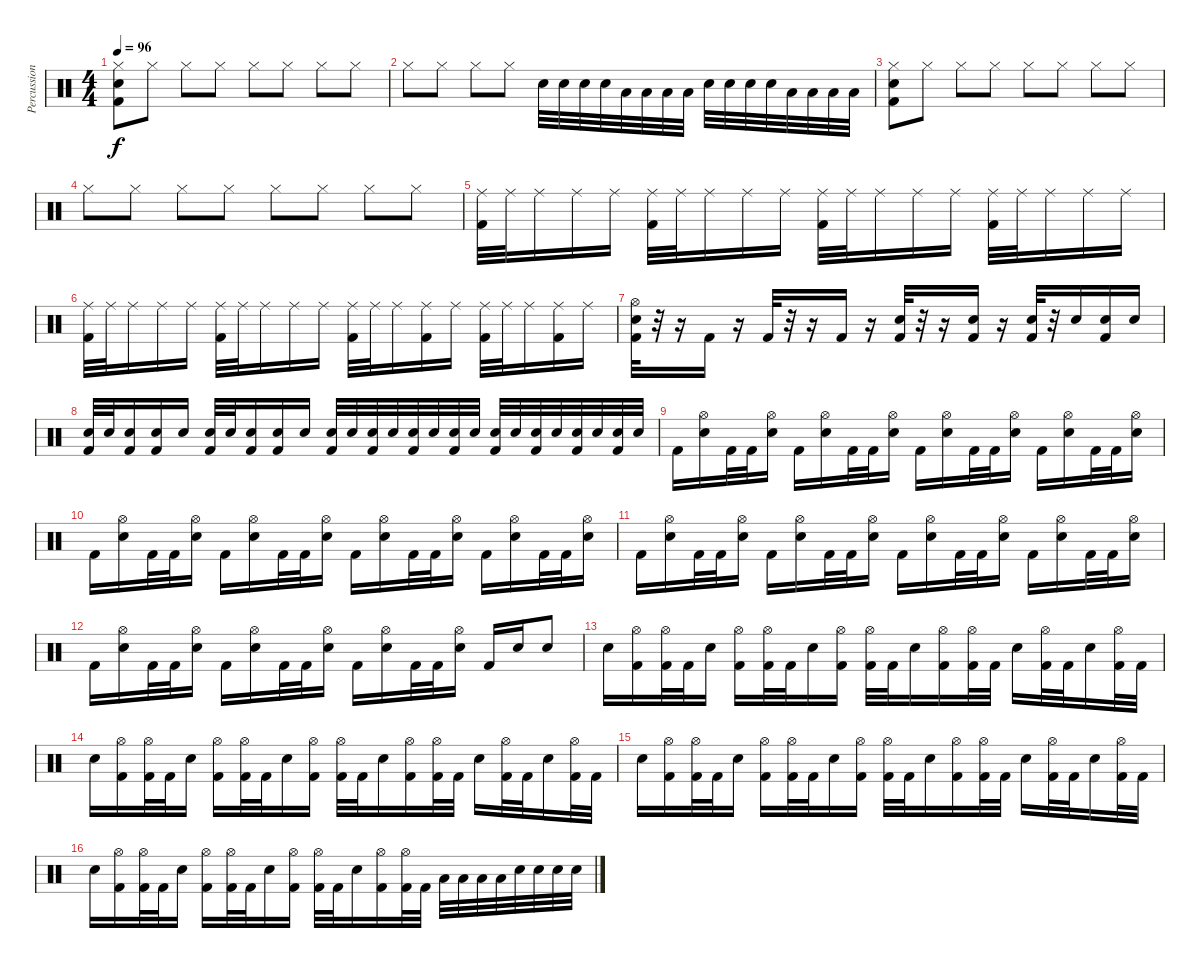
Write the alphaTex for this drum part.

\track ("Percussion" "Percussion") {instrument percussion}
\staff {score}
\articulation defaults
\ts (4 4)
\tempo 96
\clef neutral
\ks c
("Kick (hit) 2" "Hi-Hat (closed)" "Electric Snare (hit)").8{dy f} "Hi-Hat (closed)".8 "Hi-Hat (closed)".8 "Hi-Hat (closed)".8 "Hi-Hat (closed)".8 "Hi-Hat (closed)".8 "Hi-Hat (closed)".8 "Hi-Hat (closed)".8 |
"Hi-Hat (closed)".8 "Hi-Hat (closed)".8 "Hi-Hat (closed)".8 "Hi-Hat (closed)".8 "Electric Snare (hit)".32 "Electric Snare (hit)".32 "Electric Snare (hit)".32 "Electric Snare (hit)".32 "Low Tom (hit)".32 "Low Tom (hit)".32 "Low Tom (hit)".32 "Low Tom (hit)".32 "Electric Snare (hit)".32 "Electric Snare (hit)".32 "Electric Snare (hit)".32 "Electric Snare (hit)".32 "Low Tom (hit)".32 "Low Tom (hit)".32 "Low Tom (hit)".32 "Low Tom (hit)".32 |
("Kick (hit) 2" "Hi-Hat (closed)" "Electric Snare (hit)").8 "Hi-Hat (closed)".8 "Hi-Hat (closed)".8 "Hi-Hat (closed)".8 "Hi-Hat (closed)".8 "Hi-Hat (closed)".8 "Hi-Hat (closed)".8 "Hi-Hat (closed)".8 |
"Hi-Hat (closed)".8 "Hi-Hat (closed)".8 "Hi-Hat (closed)".8 "Hi-Hat (closed)".8 "Hi-Hat (closed)".8 "Hi-Hat (closed)".8 "Hi-Hat (closed)".8 "Hi-Hat (closed)".8 |
("Kick (hit) 2" "Ride (middle)").32 "Ride (middle)".32 "Ride (middle)".16 "Ride (middle)".16 "Ride (middle)".16 ("Kick (hit) 2" "Ride (middle)").32 "Ride (middle)".32 "Ride (middle)".16 "Ride (middle)".16 "Ride (middle)".16 ("Kick (hit) 2" "Ride (middle)").32 "Ride (middle)".32 "Ride (middle)".16 "Ride (middle)".16 "Ride (middle)".16 ("Kick (hit) 2" "Ride (middle)").32 "Ride (middle)".32 "Ride (middle)".16 "Ride (middle)".16 "Ride (middle)".16 |
("Kick (hit) 2" "Ride (middle)").32 "Ride (middle)".32 "Ride (middle)".16 "Ride (middle)".16 "Ride (middle)".16 ("Kick (hit) 2" "Ride (middle)").32 "Ride (middle)".32 "Ride (middle)".16 "Ride (middle)".16 "Ride (middle)".16 ("Kick (hit) 2" "Ride (middle)").32 "Ride (middle)".32 "Ride (middle)".16 ("Kick (hit) 2" "Ride (middle)").16 "Ride (middle)".16 ("Kick (hit) 2" "Ride (middle)").32 "Ride (middle)".32 "Ride (middle)".16 ("Kick (hit) 2" "Ride (middle)").16 "Ride (middle)".16 |
("Kick (hit) 2" "Hi-Hat (open)" "Electric Snare (hit)").32 r.32 r.16 "Kick (hit) 2".16 r.16 "Kick (hit) 2".32 r.32 r.16 "Kick (hit) 2".16 r.16 ("Kick (hit) 2" "Electric Snare (hit)").32 r.32 r.16 ("Kick (hit) 2" "Electric Snare (hit)").16 r.16 ("Kick (hit) 2" "Electric Snare (hit)").32 r.32 "Electric Snare (hit)".16{volume 7} ("Kick (hit) 2" "Electric Snare (hit)").16{volume 8} "Electric Snare (hit)".16{volume 9} |
("Kick (hit) 2" "Electric Snare (hit)").32{volume 10} "Electric Snare (hit)".32 ("Kick (hit) 2" "Electric Snare (hit)").16 ("Kick (hit) 2" "Electric Snare (hit)").16{volume 13} "Electric Snare (hit)".16 ("Kick (hit) 2" "Electric Snare (hit)").32{volume 14} "Electric Snare (hit)".32 ("Kick (hit) 2" "Electric Snare (hit)").16 ("Kick (hit) 2" "Electric Snare (hit)").16{volume 15} "Electric Snare (hit)".16 ("Kick (hit) 2" "Electric Snare (hit)").32{volume 15} "Electric Snare (hit)".32 ("Kick (hit) 2" "Electric Snare (hit)").32 "Electric Snare (hit)".32 ("Kick (hit) 2" "Electric Snare (hit)").32 "Electric Snare (hit)".32 ("Kick (hit) 2" "Electric Snare (hit)").32 "Electric Snare (hit)".32 ("Kick (hit) 2" "Electric Snare (hit)").32 "Electric Snare (hit)".32 ("Kick (hit) 2" "Electric Snare (hit)").32 "Electric Snare (hit)".32 ("Kick (hit) 2" "Electric Snare (hit)").32 "Electric Snare (hit)".32 ("Kick (hit) 2" "Electric Snare (hit)").32 "Electric Snare (hit)".32 |
"Kick (hit) 2".16 ("Electric Snare (hit)" "Hi-Hat (open)").16 "Kick (hit) 2".32 "Kick (hit) 2".32 ("Electric Snare (hit)" "Hi-Hat (open)").16 "Kick (hit) 2".16 ("Electric Snare (hit)" "Hi-Hat (open)").16 "Kick (hit) 2".32 "Kick (hit) 2".32 ("Electric Snare (hit)" "Hi-Hat (open)").16 "Kick (hit) 2".16 ("Electric Snare (hit)" "Hi-Hat (open)").16 "Kick (hit) 2".32 "Kick (hit) 2".32 ("Electric Snare (hit)" "Hi-Hat (open)").16 "Kick (hit) 2".16 ("Electric Snare (hit)" "Hi-Hat (open)").16 "Kick (hit) 2".32 "Kick (hit) 2".32 ("Electric Snare (hit)" "Hi-Hat (open)").16 |
"Kick (hit) 2".16 ("Electric Snare (hit)" "Hi-Hat (open)").16 "Kick (hit) 2".32 "Kick (hit) 2".32 ("Electric Snare (hit)" "Hi-Hat (open)").16 "Kick (hit) 2".16 ("Electric Snare (hit)" "Hi-Hat (open)").16 "Kick (hit) 2".32 "Kick (hit) 2".32 ("Electric Snare (hit)" "Hi-Hat (open)").16 "Kick (hit) 2".16 ("Electric Snare (hit)" "Hi-Hat (open)").16 "Kick (hit) 2".32 "Kick (hit) 2".32 ("Electric Snare (hit)" "Hi-Hat (open)").16 "Kick (hit) 2".16 ("Electric Snare (hit)" "Hi-Hat (open)").16 "Kick (hit) 2".32 "Kick (hit) 2".32 ("Electric Snare (hit)" "Hi-Hat (open)").16 |
"Kick (hit) 2".16 ("Electric Snare (hit)" "Hi-Hat (open)").16 "Kick (hit) 2".32 "Kick (hit) 2".32 ("Electric Snare (hit)" "Hi-Hat (open)").16 "Kick (hit) 2".16 ("Electric Snare (hit)" "Hi-Hat (open)").16 "Kick (hit) 2".32 "Kick (hit) 2".32 ("Electric Snare (hit)" "Hi-Hat (open)").16 "Kick (hit) 2".16 ("Electric Snare (hit)" "Hi-Hat (open)").16 "Kick (hit) 2".32 "Kick (hit) 2".32 ("Electric Snare (hit)" "Hi-Hat (open)").16 "Kick (hit) 2".16 ("Electric Snare (hit)" "Hi-Hat (open)").16 "Kick (hit) 2".32 "Kick (hit) 2".32 ("Electric Snare (hit)" "Hi-Hat (open)").16 |
"Kick (hit) 2".16 ("Electric Snare (hit)" "Hi-Hat (open)").16 "Kick (hit) 2".32 "Kick (hit) 2".32 ("Electric Snare (hit)" "Hi-Hat (open)").16 "Kick (hit) 2".16 ("Electric Snare (hit)" "Hi-Hat (open)").16 "Kick (hit) 2".32 "Kick (hit) 2".32 ("Electric Snare (hit)" "Hi-Hat (open)").16 "Kick (hit) 2".16 ("Electric Snare (hit)" "Hi-Hat (open)").16 "Kick (hit) 2".32 "Kick (hit) 2".32 ("Electric Snare (hit)" "Hi-Hat (open)").16 "Kick (hit) 2".16 "Electric Snare (hit)".16 "Electric Snare (hit)".8 |
"Electric Snare (hit)".16 ("Kick (hit) 2" "Hi-Hat (open)").16 ("Kick (hit) 2" "Hi-Hat (open)").32 "Kick (hit) 2".32 "Electric Snare (hit)".16 ("Kick (hit) 2" "Hi-Hat (open)").16 ("Kick (hit) 2" "Hi-Hat (open)").32 "Kick (hit) 2".32 "Electric Snare (hit)".16 ("Kick (hit) 2" "Hi-Hat (open)").16 ("Kick (hit) 2" "Hi-Hat (open)").32 "Kick (hit) 2".32 "Electric Snare (hit)".16 ("Kick (hit) 2" "Hi-Hat (open)").16 ("Kick (hit) 2" "Hi-Hat (open)").32 "Kick (hit) 2".32 "Electric Snare (hit)".16 ("Kick (hit) 2" "Hi-Hat (open)").32 "Kick (hit) 2".32 "Electric Snare (hit)".16 ("Kick (hit) 2" "Hi-Hat (open)").32 "Kick (hit) 2".32 |
"Electric Snare (hit)".16 ("Kick (hit) 2" "Hi-Hat (open)").16 ("Kick (hit) 2" "Hi-Hat (open)").32 "Kick (hit) 2".32 "Electric Snare (hit)".16 ("Kick (hit) 2" "Hi-Hat (open)").16 ("Kick (hit) 2" "Hi-Hat (open)").32 "Kick (hit) 2".32 "Electric Snare (hit)".16 ("Kick (hit) 2" "Hi-Hat (open)").16 ("Kick (hit) 2" "Hi-Hat (open)").32 "Kick (hit) 2".32 "Electric Snare (hit)".16 ("Kick (hit) 2" "Hi-Hat (open)").16 ("Kick (hit) 2" "Hi-Hat (open)").32 "Kick (hit) 2".32 "Electric Snare (hit)".16 ("Kick (hit) 2" "Hi-Hat (open)").32 "Kick (hit) 2".32 "Electric Snare (hit)".16 ("Kick (hit) 2" "Hi-Hat (open)").32 "Kick (hit) 2".32 |
"Electric Snare (hit)".16 ("Kick (hit) 2" "Hi-Hat (open)").16 ("Kick (hit) 2" "Hi-Hat (open)").32 "Kick (hit) 2".32 "Electric Snare (hit)".16 ("Kick (hit) 2" "Hi-Hat (open)").16 ("Kick (hit) 2" "Hi-Hat (open)").32 "Kick (hit) 2".32 "Electric Snare (hit)".16 ("Kick (hit) 2" "Hi-Hat (open)").16 ("Kick (hit) 2" "Hi-Hat (open)").32 "Kick (hit) 2".32 "Electric Snare (hit)".16 ("Kick (hit) 2" "Hi-Hat (open)").16 ("Kick (hit) 2" "Hi-Hat (open)").32 "Kick (hit) 2".32 "Electric Snare (hit)".16 ("Kick (hit) 2" "Hi-Hat (open)").32 "Kick (hit) 2".32 "Electric Snare (hit)".16 ("Kick (hit) 2" "Hi-Hat (open)").32 "Kick (hit) 2".32 |
"Electric Snare (hit)".16 ("Kick (hit) 2" "Hi-Hat (open)").16 ("Kick (hit) 2" "Hi-Hat (open)").32 "Kick (hit) 2".32 "Electric Snare (hit)".16 ("Kick (hit) 2" "Hi-Hat (open)").16 ("Kick (hit) 2" "Hi-Hat (open)").32 "Kick (hit) 2".32 "Electric Snare (hit)".16 ("Kick (hit) 2" "Hi-Hat (open)").16 ("Kick (hit) 2" "Hi-Hat (open)").32 "Kick (hit) 2".32 "Electric Snare (hit)".16 ("Kick (hit) 2" "Hi-Hat (open)").16 ("Kick (hit) 2" "Hi-Hat (open)").32 "Kick (hit) 2".32 "Low Tom (hit)".32 "Low Tom (hit)".32 "Low Tom (hit)".32 "Low Tom (hit)".32 "Electric Snare (hit)".32 "Electric Snare (hit)".32 "Electric Snare (hit)".32 "Electric Snare (hit)".32
